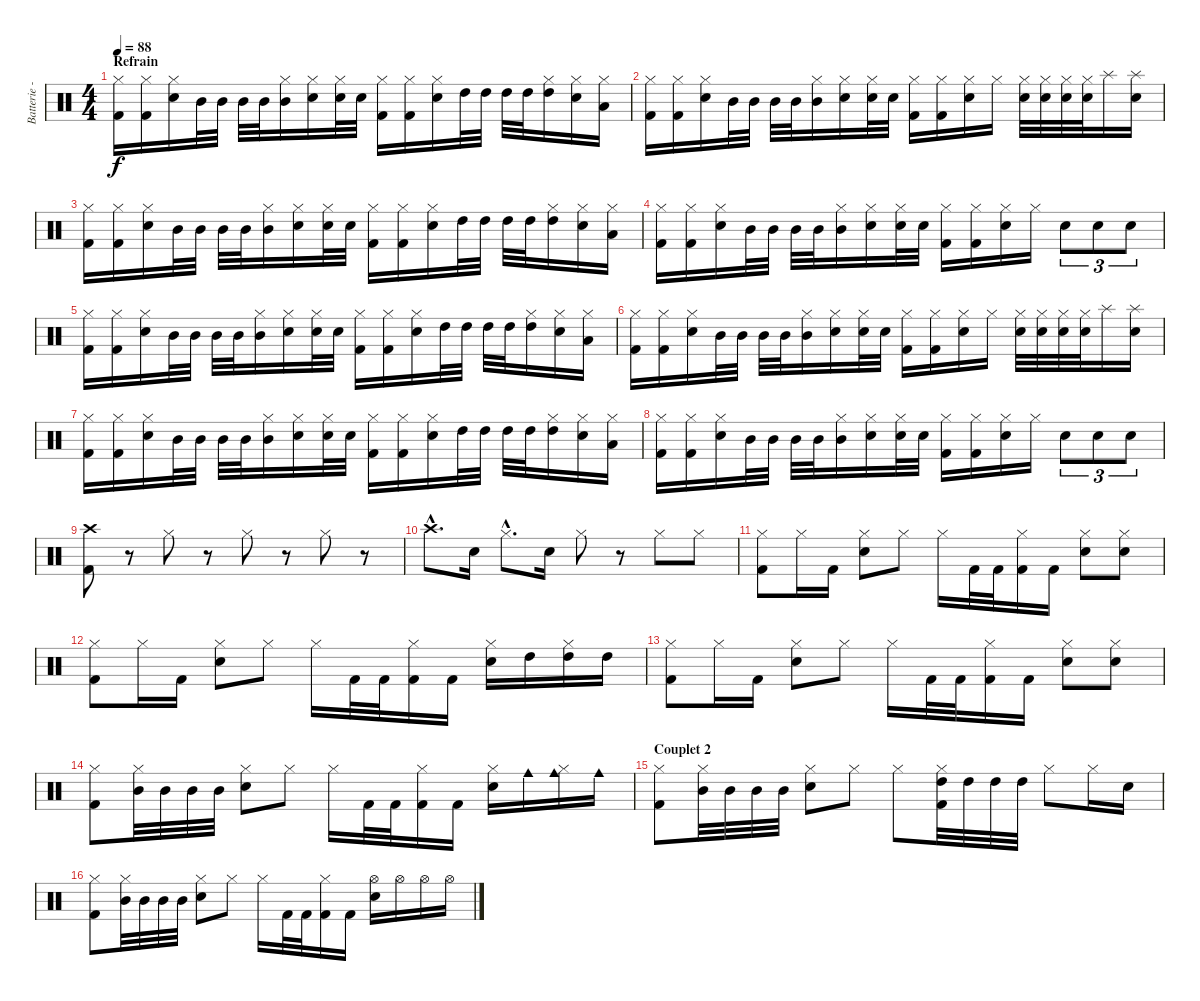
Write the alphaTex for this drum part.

\track ("Batterie - Franz'" "Batterie -") {instrument percussion}
\staff {score}
\articulation defaults
\ts (4 4)
\section ("" "Refrain")
\tempo 88
\clef neutral
\ks c
("Hi-Hat (closed)" "Kick (hit) 2").16{dy f} ("Hi-Hat (closed)" "Kick (hit) 2").16 ("Hi-Hat (closed)" "Electric Snare (hit)").16 "Mid Tom (hit)".32 "Mid Tom (hit)".32 "Mid Tom (hit)".32 "Mid Tom (hit)".32 ("Hi-Hat (closed)" "Mid Tom (hit)").16 ("Hi-Hat (closed)" "Electric Snare (hit)").16 ("Hi-Hat (closed)" "Electric Snare (hit)").32 "Electric Snare (hit)".32 ("Hi-Hat (closed)" "Kick (hit) 2").16 ("Hi-Hat (closed)" "Kick (hit) 2").16 ("Hi-Hat (closed)" "Electric Snare (hit)").16 "High Tom (hit)".32 "High Tom (hit)".32 "High Tom (hit)".32 "High Tom (hit)".32 ("Hi-Hat (closed)" "High Tom (hit)").16 ("Hi-Hat (closed)" "Electric Snare (hit)").16 ("Hi-Hat (closed)" "Low Tom (hit)").16 |
("Hi-Hat (closed)" "Kick (hit) 2").16 ("Hi-Hat (closed)" "Kick (hit) 2").16 ("Hi-Hat (closed)" "Electric Snare (hit)").16 "Mid Tom (hit)".32 "Mid Tom (hit)".32 "Mid Tom (hit)".32 "Mid Tom (hit)".32 ("Hi-Hat (closed)" "Mid Tom (hit)").16 ("Hi-Hat (closed)" "Electric Snare (hit)").16 ("Hi-Hat (closed)" "Electric Snare (hit)").32 "Electric Snare (hit)".32 ("Hi-Hat (closed)" "Kick (hit) 2").16 ("Hi-Hat (closed)" "Kick (hit) 2").16 ("Hi-Hat (closed)" "Electric Snare (hit)").16 "Hi-Hat (closed)".16 ("Hi-Hat (closed)" "Electric Snare (hit)").32 ("Hi-Hat (closed)" "Electric Snare (hit)").32 ("Hi-Hat (closed)" "Electric Snare (hit)").32 ("Hi-Hat (closed)" "Electric Snare (hit)").32 "Splash (hit)".16 ("Splash (hit)" "Electric Snare (hit)").16 |
("Hi-Hat (closed)" "Kick (hit) 2").16 ("Hi-Hat (closed)" "Kick (hit) 2").16 ("Hi-Hat (closed)" "Electric Snare (hit)").16 "Mid Tom (hit)".32 "Mid Tom (hit)".32 "Mid Tom (hit)".32 "Mid Tom (hit)".32 ("Hi-Hat (closed)" "Mid Tom (hit)").16 ("Hi-Hat (closed)" "Electric Snare (hit)").16 ("Hi-Hat (closed)" "Electric Snare (hit)").32 "Electric Snare (hit)".32 ("Hi-Hat (closed)" "Kick (hit) 2").16 ("Hi-Hat (closed)" "Kick (hit) 2").16 ("Hi-Hat (closed)" "Electric Snare (hit)").16 "High Tom (hit)".32 "High Tom (hit)".32 "High Tom (hit)".32 "High Tom (hit)".32 ("Hi-Hat (closed)" "High Tom (hit)").16 ("Hi-Hat (closed)" "Electric Snare (hit)").16 ("Hi-Hat (closed)" "Low Tom (hit)").16 |
("Hi-Hat (closed)" "Kick (hit) 2").16 ("Hi-Hat (closed)" "Kick (hit) 2").16 ("Hi-Hat (closed)" "Electric Snare (hit)").16 "Mid Tom (hit)".32 "Mid Tom (hit)".32 "Mid Tom (hit)".32 "Mid Tom (hit)".32 ("Hi-Hat (closed)" "Mid Tom (hit)").16 ("Hi-Hat (closed)" "Electric Snare (hit)").16 ("Hi-Hat (closed)" "Electric Snare (hit)").32 "Electric Snare (hit)".32 ("Hi-Hat (closed)" "Kick (hit) 2").16 ("Hi-Hat (closed)" "Kick (hit) 2").16 ("Hi-Hat (closed)" "Electric Snare (hit)").16 "Hi-Hat (closed)".16 "Electric Snare (hit)".8{tu (3 2)} "Electric Snare (hit)".8{tu (3 2)} "Electric Snare (hit)".8{tu (3 2)} |
("Hi-Hat (closed)" "Kick (hit) 2").16 ("Hi-Hat (closed)" "Kick (hit) 2").16 ("Hi-Hat (closed)" "Electric Snare (hit)").16 "Mid Tom (hit)".32 "Mid Tom (hit)".32 "Mid Tom (hit)".32 "Mid Tom (hit)".32 ("Hi-Hat (closed)" "Mid Tom (hit)").16 ("Hi-Hat (closed)" "Electric Snare (hit)").16 ("Hi-Hat (closed)" "Electric Snare (hit)").32 "Electric Snare (hit)".32 ("Hi-Hat (closed)" "Kick (hit) 2").16 ("Hi-Hat (closed)" "Kick (hit) 2").16 ("Hi-Hat (closed)" "Electric Snare (hit)").16 "High Tom (hit)".32 "High Tom (hit)".32 "High Tom (hit)".32 "High Tom (hit)".32 ("Hi-Hat (closed)" "High Tom (hit)").16 ("Hi-Hat (closed)" "Electric Snare (hit)").16 ("Hi-Hat (closed)" "Low Tom (hit)").16 |
("Hi-Hat (closed)" "Kick (hit) 2").16 ("Hi-Hat (closed)" "Kick (hit) 2").16 ("Hi-Hat (closed)" "Electric Snare (hit)").16 "Mid Tom (hit)".32 "Mid Tom (hit)".32 "Mid Tom (hit)".32 "Mid Tom (hit)".32 ("Hi-Hat (closed)" "Mid Tom (hit)").16 ("Hi-Hat (closed)" "Electric Snare (hit)").16 ("Hi-Hat (closed)" "Electric Snare (hit)").32 "Electric Snare (hit)".32 ("Hi-Hat (closed)" "Kick (hit) 2").16 ("Hi-Hat (closed)" "Kick (hit) 2").16 ("Hi-Hat (closed)" "Electric Snare (hit)").16 "Hi-Hat (closed)".16 ("Hi-Hat (closed)" "Electric Snare (hit)").32 ("Hi-Hat (closed)" "Electric Snare (hit)").32 ("Hi-Hat (closed)" "Electric Snare (hit)").32 ("Hi-Hat (closed)" "Electric Snare (hit)").32 "Splash (hit)".16 ("Splash (hit)" "Electric Snare (hit)").16 |
("Hi-Hat (closed)" "Kick (hit) 2").16 ("Hi-Hat (closed)" "Kick (hit) 2").16 ("Hi-Hat (closed)" "Electric Snare (hit)").16 "Mid Tom (hit)".32 "Mid Tom (hit)".32 "Mid Tom (hit)".32 "Mid Tom (hit)".32 ("Hi-Hat (closed)" "Mid Tom (hit)").16 ("Hi-Hat (closed)" "Electric Snare (hit)").16 ("Hi-Hat (closed)" "Electric Snare (hit)").32 "Electric Snare (hit)".32 ("Hi-Hat (closed)" "Kick (hit) 2").16 ("Hi-Hat (closed)" "Kick (hit) 2").16 ("Hi-Hat (closed)" "Electric Snare (hit)").16 "High Tom (hit)".32 "High Tom (hit)".32 "High Tom (hit)".32 "High Tom (hit)".32 ("Hi-Hat (closed)" "High Tom (hit)").16 ("Hi-Hat (closed)" "Electric Snare (hit)").16 ("Hi-Hat (closed)" "Low Tom (hit)").16 |
("Hi-Hat (closed)" "Kick (hit) 2").16 ("Hi-Hat (closed)" "Kick (hit) 2").16 ("Hi-Hat (closed)" "Electric Snare (hit)").16 "Mid Tom (hit)".32 "Mid Tom (hit)".32 "Mid Tom (hit)".32 "Mid Tom (hit)".32 ("Hi-Hat (closed)" "Mid Tom (hit)").16 ("Hi-Hat (closed)" "Electric Snare (hit)").16 ("Hi-Hat (closed)" "Electric Snare (hit)").32 "Electric Snare (hit)".32 ("Hi-Hat (closed)" "Kick (hit) 2").16 ("Hi-Hat (closed)" "Kick (hit) 2").16 ("Hi-Hat (closed)" "Electric Snare (hit)").16 "Hi-Hat (closed)".16 "Electric Snare (hit)".8{tu (3 2)} "Electric Snare (hit)".8{tu (3 2)} "Electric Snare (hit)".8{tu (3 2)} |
("Crash high (hit)" "Kick (hit) 2").8 r.8 "Hi-Hat (closed)".8 r.8 "Hi-Hat (closed)".8 r.8 "Hi-Hat (closed)".8 r.8 |
"Crash high (hit)"{hac}.8{d} "Electric Snare (hit)".16 "Hi-Hat (closed)"{hac}.8{d} "Electric Snare (hit)".16 "Hi-Hat (closed)".8 r.8 "Hi-Hat (closed)".8 "Hi-Hat (closed)".8 |
("Hi-Hat (closed)" "Kick (hit) 2").8 "Hi-Hat (closed)".16 "Kick (hit) 2".16 ("Hi-Hat (closed)" "Electric Snare (hit)").8 "Hi-Hat (closed)".8 "Hi-Hat (closed)".16 "Kick (hit) 2".32 "Kick (hit) 2".32 ("Hi-Hat (closed)" "Kick (hit) 2").16 "Kick (hit) 2".16 ("Hi-Hat (closed)" "Electric Snare (hit)").8 ("Hi-Hat (closed)" "Electric Snare (hit)").8 |
("Hi-Hat (closed)" "Kick (hit) 2").8 "Hi-Hat (closed)".16 "Kick (hit) 2".16 ("Hi-Hat (closed)" "Electric Snare (hit)").8 "Hi-Hat (closed)".8 "Hi-Hat (closed)".16 "Kick (hit) 2".32 "Kick (hit) 2".32 ("Hi-Hat (closed)" "Kick (hit) 2").16 "Kick (hit) 2".16 ("Hi-Hat (closed)" "Electric Snare (hit)").16 "High Tom (hit)".16 ("Hi-Hat (closed)" "High Tom (hit)").16 "High Tom (hit)".16 |
("Hi-Hat (closed)" "Kick (hit) 2").8 "Hi-Hat (closed)".16 "Kick (hit) 2".16 ("Hi-Hat (closed)" "Electric Snare (hit)").8 "Hi-Hat (closed)".8 "Hi-Hat (closed)".16 "Kick (hit) 2".32 "Kick (hit) 2".32 ("Hi-Hat (closed)" "Kick (hit) 2").16 "Kick (hit) 2".16 ("Hi-Hat (closed)" "Electric Snare (hit)").8 ("Hi-Hat (closed)" "Electric Snare (hit)").8 |
("Hi-Hat (closed)" "Kick (hit) 2").8 ("Hi-Hat (closed)" "Mid Tom (hit)").32 "Mid Tom (hit)".32 "Mid Tom (hit)".32 "Mid Tom (hit)".32 ("Hi-Hat (closed)" "Electric Snare (hit)").8 "Hi-Hat (closed)".8 "Hi-Hat (closed)".16 "Kick (hit) 2".32 "Kick (hit) 2".32 ("Hi-Hat (closed)" "Kick (hit) 2").16 "Kick (hit) 2".16 ("Hi-Hat (closed)" "Electric Snare (hit)").16 "Cowbell medium (hit)".16 ("Hi-Hat (closed)" "Cowbell medium (hit)").16 "Cowbell medium (hit)".16 |
\section ("" "Couplet 2")
("Hi-Hat (closed)" "Kick (hit) 2").8 ("Hi-Hat (closed)" "Mid Tom (hit)").32 "Mid Tom (hit)".32 "Mid Tom (hit)".32 "Mid Tom (hit)".32 ("Hi-Hat (closed)" "Electric Snare (hit)").8 "Hi-Hat (closed)".8 "Hi-Hat (closed)".8 ("Hi-Hat (closed)" "High Tom (hit)" "Kick (hit) 2").32 "High Tom (hit)".32 "High Tom (hit)".32 "High Tom (hit)".32 "Hi-Hat (closed)".8 "Hi-Hat (closed)".16 "Electric Snare (hit)".16 |
("Hi-Hat (closed)" "Kick (hit) 2").8 ("Hi-Hat (closed)" "Mid Tom (hit)").32 "Mid Tom (hit)".32 "Mid Tom (hit)".32 "Mid Tom (hit)".32 ("Hi-Hat (closed)" "Electric Snare (hit)").8 "Hi-Hat (closed)".8 "Hi-Hat (closed)".16 "Kick (hit) 2".32 "Kick (hit) 2".32 ("Hi-Hat (closed)" "Kick (hit) 2").16 "Kick (hit) 2".16 ("Hi-Hat (open)" "Electric Snare (hit)").16 "Hi-Hat (open)".16 "Hi-Hat (open)".16 "Hi-Hat (open)".16
